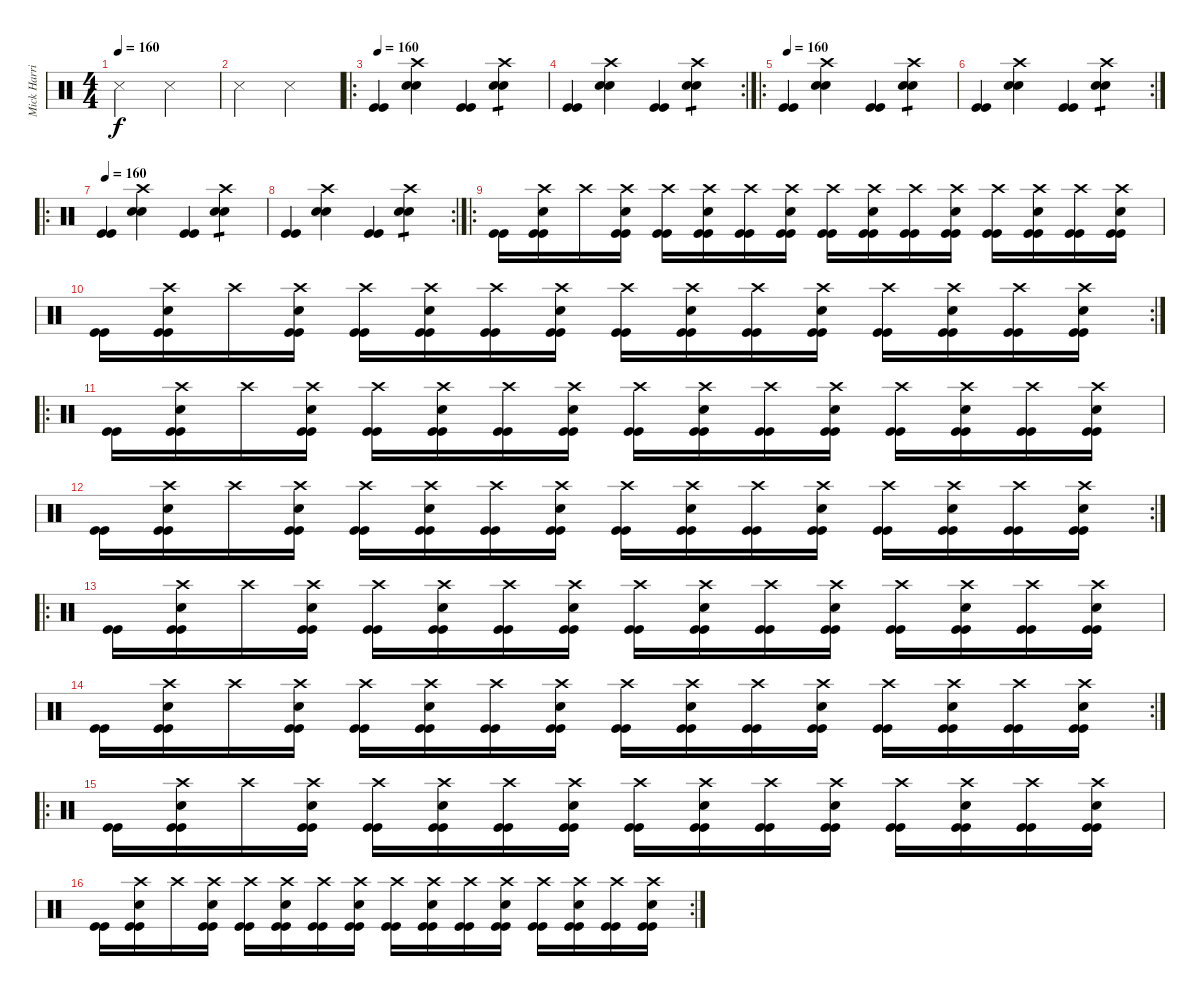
\track ("Mick Harris" "Mick Harri") {instrument percussion}
\staff {score}
\articulation defaults
\ts (4 4)
\tempo 160
\tempo 300
\tempo 160
\clef neutral
\ks c "Snare (side stick) 3".2{dy f} "Snare (side stick) 3".2
|
"Snare (side stick) 3".2 "Snare (side stick) 3".2 |
\ro
\tempo 160
("Kick (hit)" "Kick (hit)").4 ("Crash high (hit)" "Snare (hit) 2" "Snare (hit) 2").4 ("Kick (hit)" "Kick (hit)").4 ("Crash high (hit)" "Snare (hit) 2" "Snare (hit) 2").4{tp 1} |
\rc 2
("Kick (hit)" "Kick (hit)").4 ("Crash high (hit)" "Snare (hit) 2" "Snare (hit) 2").4 ("Kick (hit)" "Kick (hit)").4 ("Crash high (hit)" "Snare (hit) 2" "Snare (hit) 2").4{tp 1} |
\ro
\tempo 160
("Kick (hit)" "Kick (hit)").4 ("Crash high (hit)" "Snare (hit) 2" "Snare (hit) 2").4 ("Kick (hit)" "Kick (hit)").4 ("Crash high (hit)" "Snare (hit) 2" "Snare (hit) 2").4{tp 1} |
\rc 2
("Kick (hit)" "Kick (hit)").4 ("Crash high (hit)" "Snare (hit) 2" "Snare (hit) 2").4 ("Kick (hit)" "Kick (hit)").4 ("Crash high (hit)" "Snare (hit) 2" "Snare (hit) 2").4{tp 1} |
\ro
\tempo 160
("Kick (hit)" "Kick (hit)").4 ("Crash high (hit)" "Snare (hit) 2" "Snare (hit) 2").4 ("Kick (hit)" "Kick (hit)").4 ("Crash high (hit)" "Snare (hit) 2" "Snare (hit) 2").4{tp 1} |
\rc 2
("Kick (hit)" "Kick (hit)").4 ("Crash high (hit)" "Snare (hit) 2" "Snare (hit) 2").4 ("Kick (hit)" "Kick (hit)").4 ("Crash high (hit)" "Snare (hit) 2" "Snare (hit) 2").4{tp 1} |
\ro
("Kick (hit)" "Kick (hit)").16 ("Crash high (hit)" "Snare (hit) 2" "Kick (hit)" "Kick (hit)").16 "Crash high (hit)".16 ("Crash high (hit)" "Snare (hit) 2" "Kick (hit)" "Kick (hit)").16 ("Crash high (hit)" "Kick (hit)" "Kick (hit)").16 ("Crash high (hit)" "Snare (hit) 2" "Kick (hit)" "Kick (hit)").16 ("Crash high (hit)" "Kick (hit)" "Kick (hit)").16 ("Crash high (hit)" "Snare (hit) 2" "Kick (hit)" "Kick (hit)").16 ("Crash high (hit)" "Kick (hit)" "Kick (hit)").16 ("Crash high (hit)" "Snare (hit) 2" "Kick (hit)" "Kick (hit)").16 ("Crash high (hit)" "Kick (hit)" "Kick (hit)").16 ("Crash high (hit)" "Snare (hit) 2" "Kick (hit)" "Kick (hit)").16 ("Crash high (hit)" "Kick (hit)" "Kick (hit)").16 ("Crash high (hit)" "Snare (hit) 2" "Kick (hit)" "Kick (hit)").16 ("Crash high (hit)" "Kick (hit)" "Kick (hit)").16 ("Crash high (hit)" "Snare (hit) 2" "Kick (hit)" "Kick (hit)").16 |
\rc 2
("Kick (hit)" "Kick (hit)").16 ("Crash high (hit)" "Snare (hit) 2" "Kick (hit)" "Kick (hit)").16 "Crash high (hit)".16 ("Crash high (hit)" "Snare (hit) 2" "Kick (hit)" "Kick (hit)").16 ("Crash high (hit)" "Kick (hit)" "Kick (hit)").16 ("Crash high (hit)" "Snare (hit) 2" "Kick (hit)" "Kick (hit)").16 ("Crash high (hit)" "Kick (hit)" "Kick (hit)").16 ("Crash high (hit)" "Snare (hit) 2" "Kick (hit)" "Kick (hit)").16 ("Crash high (hit)" "Kick (hit)" "Kick (hit)").16 ("Crash high (hit)" "Snare (hit) 2" "Kick (hit)" "Kick (hit)").16 ("Crash high (hit)" "Kick (hit)" "Kick (hit)").16 ("Crash high (hit)" "Snare (hit) 2" "Kick (hit)" "Kick (hit)").16 ("Crash high (hit)" "Kick (hit)" "Kick (hit)").16 ("Crash high (hit)" "Snare (hit) 2" "Kick (hit)" "Kick (hit)").16 ("Crash high (hit)" "Kick (hit)" "Kick (hit)").16 ("Crash high (hit)" "Snare (hit) 2" "Kick (hit)" "Kick (hit)").16 |
\ro
("Kick (hit)" "Kick (hit)").16 ("Crash high (hit)" "Snare (hit) 2" "Kick (hit)" "Kick (hit)").16 "Crash high (hit)".16 ("Crash high (hit)" "Snare (hit) 2" "Kick (hit)" "Kick (hit)").16 ("Crash high (hit)" "Kick (hit)" "Kick (hit)").16 ("Crash high (hit)" "Snare (hit) 2" "Kick (hit)" "Kick (hit)").16 ("Crash high (hit)" "Kick (hit)" "Kick (hit)").16 ("Crash high (hit)" "Snare (hit) 2" "Kick (hit)" "Kick (hit)").16 ("Crash high (hit)" "Kick (hit)" "Kick (hit)").16 ("Crash high (hit)" "Snare (hit) 2" "Kick (hit)" "Kick (hit)").16 ("Crash high (hit)" "Kick (hit)" "Kick (hit)").16 ("Crash high (hit)" "Snare (hit) 2" "Kick (hit)" "Kick (hit)").16 ("Crash high (hit)" "Kick (hit)" "Kick (hit)").16 ("Crash high (hit)" "Snare (hit) 2" "Kick (hit)" "Kick (hit)").16 ("Crash high (hit)" "Kick (hit)" "Kick (hit)").16 ("Crash high (hit)" "Snare (hit) 2" "Kick (hit)" "Kick (hit)").16 |
\rc 2
("Kick (hit)" "Kick (hit)").16 ("Crash high (hit)" "Snare (hit) 2" "Kick (hit)" "Kick (hit)").16 "Crash high (hit)".16 ("Crash high (hit)" "Snare (hit) 2" "Kick (hit)" "Kick (hit)").16 ("Crash high (hit)" "Kick (hit)" "Kick (hit)").16 ("Crash high (hit)" "Snare (hit) 2" "Kick (hit)" "Kick (hit)").16 ("Crash high (hit)" "Kick (hit)" "Kick (hit)").16 ("Crash high (hit)" "Snare (hit) 2" "Kick (hit)" "Kick (hit)").16 ("Crash high (hit)" "Kick (hit)" "Kick (hit)").16 ("Crash high (hit)" "Snare (hit) 2" "Kick (hit)" "Kick (hit)").16 ("Crash high (hit)" "Kick (hit)" "Kick (hit)").16 ("Crash high (hit)" "Snare (hit) 2" "Kick (hit)" "Kick (hit)").16 ("Crash high (hit)" "Kick (hit)" "Kick (hit)").16 ("Crash high (hit)" "Snare (hit) 2" "Kick (hit)" "Kick (hit)").16 ("Crash high (hit)" "Kick (hit)" "Kick (hit)").16 ("Crash high (hit)" "Snare (hit) 2" "Kick (hit)" "Kick (hit)").16 |
\ro
("Kick (hit)" "Kick (hit)").16 ("Crash high (hit)" "Snare (hit) 2" "Kick (hit)" "Kick (hit)").16 "Crash high (hit)".16 ("Crash high (hit)" "Snare (hit) 2" "Kick (hit)" "Kick (hit)").16 ("Crash high (hit)" "Kick (hit)" "Kick (hit)").16 ("Crash high (hit)" "Snare (hit) 2" "Kick (hit)" "Kick (hit)").16 ("Crash high (hit)" "Kick (hit)" "Kick (hit)").16 ("Crash high (hit)" "Snare (hit) 2" "Kick (hit)" "Kick (hit)").16 ("Crash high (hit)" "Kick (hit)" "Kick (hit)").16 ("Crash high (hit)" "Snare (hit) 2" "Kick (hit)" "Kick (hit)").16 ("Crash high (hit)" "Kick (hit)" "Kick (hit)").16 ("Crash high (hit)" "Snare (hit) 2" "Kick (hit)" "Kick (hit)").16 ("Crash high (hit)" "Kick (hit)" "Kick (hit)").16 ("Crash high (hit)" "Snare (hit) 2" "Kick (hit)" "Kick (hit)").16 ("Crash high (hit)" "Kick (hit)" "Kick (hit)").16 ("Crash high (hit)" "Snare (hit) 2" "Kick (hit)" "Kick (hit)").16 |
\rc 2
("Kick (hit)" "Kick (hit)").16 ("Crash high (hit)" "Snare (hit) 2" "Kick (hit)" "Kick (hit)").16 "Crash high (hit)".16 ("Crash high (hit)" "Snare (hit) 2" "Kick (hit)" "Kick (hit)").16 ("Crash high (hit)" "Kick (hit)" "Kick (hit)").16 ("Crash high (hit)" "Snare (hit) 2" "Kick (hit)" "Kick (hit)").16 ("Crash high (hit)" "Kick (hit)" "Kick (hit)").16 ("Crash high (hit)" "Snare (hit) 2" "Kick (hit)" "Kick (hit)").16 ("Crash high (hit)" "Kick (hit)" "Kick (hit)").16 ("Crash high (hit)" "Snare (hit) 2" "Kick (hit)" "Kick (hit)").16 ("Crash high (hit)" "Kick (hit)" "Kick (hit)").16 ("Crash high (hit)" "Snare (hit) 2" "Kick (hit)" "Kick (hit)").16 ("Crash high (hit)" "Kick (hit)" "Kick (hit)").16 ("Crash high (hit)" "Snare (hit) 2" "Kick (hit)" "Kick (hit)").16 ("Crash high (hit)" "Kick (hit)" "Kick (hit)").16 ("Crash high (hit)" "Snare (hit) 2" "Kick (hit)" "Kick (hit)").16 |
\ro
("Kick (hit)" "Kick (hit)").16 ("Crash high (hit)" "Snare (hit) 2" "Kick (hit)" "Kick (hit)").16 "Crash high (hit)".16 ("Crash high (hit)" "Snare (hit) 2" "Kick (hit)" "Kick (hit)").16 ("Crash high (hit)" "Kick (hit)" "Kick (hit)").16 ("Crash high (hit)" "Snare (hit) 2" "Kick (hit)" "Kick (hit)").16 ("Crash high (hit)" "Kick (hit)" "Kick (hit)").16 ("Crash high (hit)" "Snare (hit) 2" "Kick (hit)" "Kick (hit)").16 ("Crash high (hit)" "Kick (hit)" "Kick (hit)").16 ("Crash high (hit)" "Snare (hit) 2" "Kick (hit)" "Kick (hit)").16 ("Crash high (hit)" "Kick (hit)" "Kick (hit)").16 ("Crash high (hit)" "Snare (hit) 2" "Kick (hit)" "Kick (hit)").16 ("Crash high (hit)" "Kick (hit)" "Kick (hit)").16 ("Crash high (hit)" "Snare (hit) 2" "Kick (hit)" "Kick (hit)").16 ("Crash high (hit)" "Kick (hit)" "Kick (hit)").16 ("Crash high (hit)" "Snare (hit) 2" "Kick (hit)" "Kick (hit)").16 |
\rc 2
("Kick (hit)" "Kick (hit)").16 ("Crash high (hit)" "Snare (hit) 2" "Kick (hit)" "Kick (hit)").16 "Crash high (hit)".16 ("Crash high (hit)" "Snare (hit) 2" "Kick (hit)" "Kick (hit)").16 ("Crash high (hit)" "Kick (hit)" "Kick (hit)").16 ("Crash high (hit)" "Snare (hit) 2" "Kick (hit)" "Kick (hit)").16 ("Crash high (hit)" "Kick (hit)" "Kick (hit)").16 ("Crash high (hit)" "Snare (hit) 2" "Kick (hit)" "Kick (hit)").16 ("Crash high (hit)" "Kick (hit)" "Kick (hit)").16 ("Crash high (hit)" "Snare (hit) 2" "Kick (hit)" "Kick (hit)").16 ("Crash high (hit)" "Kick (hit)" "Kick (hit)").16 ("Crash high (hit)" "Snare (hit) 2" "Kick (hit)" "Kick (hit)").16 ("Crash high (hit)" "Kick (hit)" "Kick (hit)").16 ("Crash high (hit)" "Snare (hit) 2" "Kick (hit)" "Kick (hit)").16 ("Crash high (hit)" "Kick (hit)" "Kick (hit)").16 ("Crash high (hit)" "Snare (hit) 2" "Kick (hit)" "Kick (hit)").16
